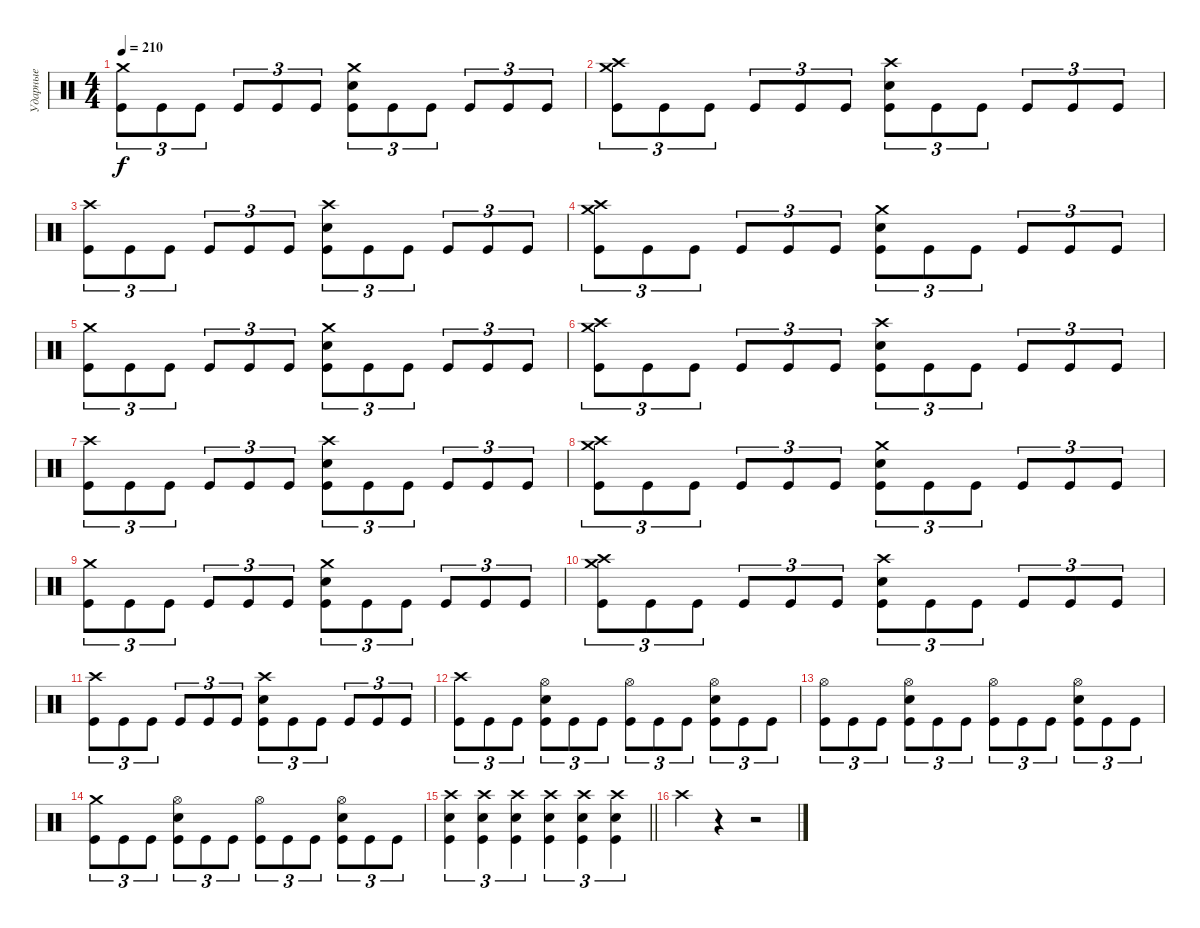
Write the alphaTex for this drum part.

\track ("Ударные" "Ударные") {instrument percussion}
\staff {score}
\articulation defaults
\ts (4 4)
\tempo 210
\clef neutral
\ks c
("Crash medium (hit)" "Kick (hit)").8{tu (3 2) dy f} "Kick (hit)".8{tu (3 2)} "Kick (hit)".8{tu (3 2)} "Kick (hit)".8{tu (3 2)} "Kick (hit)".8{tu (3 2)} "Kick (hit)".8{tu (3 2)} ("Crash medium (hit)" "Electric Snare (hit)" "Kick (hit)").8{tu (3 2)} "Kick (hit)".8{tu (3 2)} "Kick (hit)".8{tu (3 2)} "Kick (hit)".8{tu (3 2)} "Kick (hit)".8{tu (3 2)} "Kick (hit)".8{tu (3 2)} |
("Crash high (hit)" "Crash medium (hit)" "Kick (hit)").8{tu (3 2)} "Kick (hit)".8{tu (3 2)} "Kick (hit)".8{tu (3 2)} "Kick (hit)".8{tu (3 2)} "Kick (hit)".8{tu (3 2)} "Kick (hit)".8{tu (3 2)} ("Crash high (hit)" "Electric Snare (hit)" "Kick (hit)").8{tu (3 2)} "Kick (hit)".8{tu (3 2)} "Kick (hit)".8{tu (3 2)} "Kick (hit)".8{tu (3 2)} "Kick (hit)".8{tu (3 2)} "Kick (hit)".8{tu (3 2)} |
("Crash high (hit)" "Kick (hit)").8{tu (3 2)} "Kick (hit)".8{tu (3 2)} "Kick (hit)".8{tu (3 2)} "Kick (hit)".8{tu (3 2)} "Kick (hit)".8{tu (3 2)} "Kick (hit)".8{tu (3 2)} ("Crash high (hit)" "Electric Snare (hit)" "Kick (hit)").8{tu (3 2)} "Kick (hit)".8{tu (3 2)} "Kick (hit)".8{tu (3 2)} "Kick (hit)".8{tu (3 2)} "Kick (hit)".8{tu (3 2)} "Kick (hit)".8{tu (3 2)} |
("Crash high (hit)" "Crash medium (hit)" "Kick (hit)").8{tu (3 2)} "Kick (hit)".8{tu (3 2)} "Kick (hit)".8{tu (3 2)} "Kick (hit)".8{tu (3 2)} "Kick (hit)".8{tu (3 2)} "Kick (hit)".8{tu (3 2)} ("Crash medium (hit)" "Electric Snare (hit)" "Kick (hit)").8{tu (3 2)} "Kick (hit)".8{tu (3 2)} "Kick (hit)".8{tu (3 2)} "Kick (hit)".8{tu (3 2)} "Kick (hit)".8{tu (3 2)} "Kick (hit)".8{tu (3 2)} |
("Crash medium (hit)" "Kick (hit)").8{tu (3 2)} "Kick (hit)".8{tu (3 2)} "Kick (hit)".8{tu (3 2)} "Kick (hit)".8{tu (3 2)} "Kick (hit)".8{tu (3 2)} "Kick (hit)".8{tu (3 2)} ("Crash medium (hit)" "Electric Snare (hit)" "Kick (hit)").8{tu (3 2)} "Kick (hit)".8{tu (3 2)} "Kick (hit)".8{tu (3 2)} "Kick (hit)".8{tu (3 2)} "Kick (hit)".8{tu (3 2)} "Kick (hit)".8{tu (3 2)} |
("Crash high (hit)" "Crash medium (hit)" "Kick (hit)").8{tu (3 2)} "Kick (hit)".8{tu (3 2)} "Kick (hit)".8{tu (3 2)} "Kick (hit)".8{tu (3 2)} "Kick (hit)".8{tu (3 2)} "Kick (hit)".8{tu (3 2)} ("Crash high (hit)" "Electric Snare (hit)" "Kick (hit)").8{tu (3 2)} "Kick (hit)".8{tu (3 2)} "Kick (hit)".8{tu (3 2)} "Kick (hit)".8{tu (3 2)} "Kick (hit)".8{tu (3 2)} "Kick (hit)".8{tu (3 2)} |
("Crash high (hit)" "Kick (hit)").8{tu (3 2)} "Kick (hit)".8{tu (3 2)} "Kick (hit)".8{tu (3 2)} "Kick (hit)".8{tu (3 2)} "Kick (hit)".8{tu (3 2)} "Kick (hit)".8{tu (3 2)} ("Crash high (hit)" "Electric Snare (hit)" "Kick (hit)").8{tu (3 2)} "Kick (hit)".8{tu (3 2)} "Kick (hit)".8{tu (3 2)} "Kick (hit)".8{tu (3 2)} "Kick (hit)".8{tu (3 2)} "Kick (hit)".8{tu (3 2)} |
("Crash high (hit)" "Crash medium (hit)" "Kick (hit)").8{tu (3 2)} "Kick (hit)".8{tu (3 2)} "Kick (hit)".8{tu (3 2)} "Kick (hit)".8{tu (3 2)} "Kick (hit)".8{tu (3 2)} "Kick (hit)".8{tu (3 2)} ("Crash medium (hit)" "Electric Snare (hit)" "Kick (hit)").8{tu (3 2)} "Kick (hit)".8{tu (3 2)} "Kick (hit)".8{tu (3 2)} "Kick (hit)".8{tu (3 2)} "Kick (hit)".8{tu (3 2)} "Kick (hit)".8{tu (3 2)} |
("Crash medium (hit)" "Kick (hit)").8{tu (3 2)} "Kick (hit)".8{tu (3 2)} "Kick (hit)".8{tu (3 2)} "Kick (hit)".8{tu (3 2)} "Kick (hit)".8{tu (3 2)} "Kick (hit)".8{tu (3 2)} ("Crash medium (hit)" "Electric Snare (hit)" "Kick (hit)").8{tu (3 2)} "Kick (hit)".8{tu (3 2)} "Kick (hit)".8{tu (3 2)} "Kick (hit)".8{tu (3 2)} "Kick (hit)".8{tu (3 2)} "Kick (hit)".8{tu (3 2)} |
("Crash high (hit)" "Crash medium (hit)" "Kick (hit)").8{tu (3 2)} "Kick (hit)".8{tu (3 2)} "Kick (hit)".8{tu (3 2)} "Kick (hit)".8{tu (3 2)} "Kick (hit)".8{tu (3 2)} "Kick (hit)".8{tu (3 2)} ("Crash high (hit)" "Electric Snare (hit)" "Kick (hit)").8{tu (3 2)} "Kick (hit)".8{tu (3 2)} "Kick (hit)".8{tu (3 2)} "Kick (hit)".8{tu (3 2)} "Kick (hit)".8{tu (3 2)} "Kick (hit)".8{tu (3 2)} |
("Crash high (hit)" "Kick (hit)").8{tu (3 2)} "Kick (hit)".8{tu (3 2)} "Kick (hit)".8{tu (3 2)} "Kick (hit)".8{tu (3 2)} "Kick (hit)".8{tu (3 2)} "Kick (hit)".8{tu (3 2)} ("Crash high (hit)" "Electric Snare (hit)" "Kick (hit)").8{tu (3 2)} "Kick (hit)".8{tu (3 2)} "Kick (hit)".8{tu (3 2)} "Kick (hit)".8{tu (3 2)} "Kick (hit)".8{tu (3 2)} "Kick (hit)".8{tu (3 2)} |
("Crash high (hit)" "Kick (hit)").8{tu (3 2)} "Kick (hit)".8{tu (3 2)} "Kick (hit)".8{tu (3 2)} ("Hi-Hat (open)" "Electric Snare (hit)" "Kick (hit)").8{tu (3 2)} "Kick (hit)".8{tu (3 2)} "Kick (hit)".8{tu (3 2)} ("Hi-Hat (open)" "Kick (hit)").8{tu (3 2)} "Kick (hit)".8{tu (3 2)} "Kick (hit)".8{tu (3 2)} ("Hi-Hat (open)" "Electric Snare (hit)" "Kick (hit)").8{tu (3 2)} "Kick (hit)".8{tu (3 2)} "Kick (hit)".8{tu (3 2)} |
("Hi-Hat (open)" "Kick (hit)").8{tu (3 2)} "Kick (hit)".8{tu (3 2)} "Kick (hit)".8{tu (3 2)} ("Hi-Hat (open)" "Electric Snare (hit)" "Kick (hit)").8{tu (3 2)} "Kick (hit)".8{tu (3 2)} "Kick (hit)".8{tu (3 2)} ("Hi-Hat (open)" "Kick (hit)").8{tu (3 2)} "Kick (hit)".8{tu (3 2)} "Kick (hit)".8{tu (3 2)} ("Hi-Hat (open)" "Electric Snare (hit)" "Kick (hit)").8{tu (3 2)} "Kick (hit)".8{tu (3 2)} "Kick (hit)".8{tu (3 2)} |
("Crash medium (hit)" "Kick (hit)").8{tu (3 2)} "Kick (hit)".8{tu (3 2)} "Kick (hit)".8{tu (3 2)} ("Hi-Hat (open)" "Electric Snare (hit)" "Kick (hit)").8{tu (3 2)} "Kick (hit)".8{tu (3 2)} "Kick (hit)".8{tu (3 2)} ("Hi-Hat (open)" "Kick (hit)").8{tu (3 2)} "Kick (hit)".8{tu (3 2)} "Kick (hit)".8{tu (3 2)} ("Hi-Hat (open)" "Electric Snare (hit)" "Kick (hit)").8{tu (3 2)} "Kick (hit)".8{tu (3 2)} "Kick (hit)".8{tu (3 2)} |
\barLineRight lightlight
("Crash high (hit)" "Electric Snare (hit)" "Kick (hit)").4{tu (3 2)} ("Crash high (hit)" "Electric Snare (hit)" "Kick (hit)").4{tu (3 2)} ("Crash high (hit)" "Electric Snare (hit)" "Kick (hit)").4{tu (3 2)} ("Crash high (hit)" "Electric Snare (hit)" "Kick (hit)").4{tu (3 2)} ("Crash high (hit)" "Electric Snare (hit)" "Kick (hit)").4{tu (3 2)} ("Crash high (hit)" "Electric Snare (hit)" "Kick (hit)").4{tu (3 2)} |
"Crash high (hit)".4 r.4 r.2
